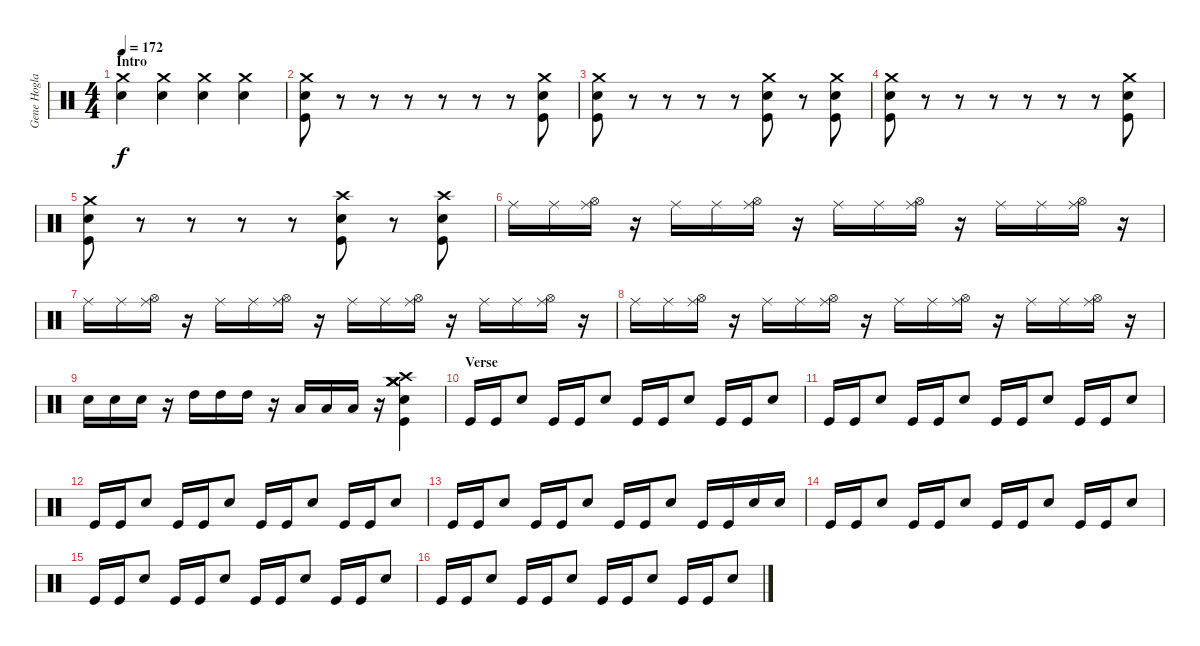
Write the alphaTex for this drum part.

\track ("Gene Hoglan" "Gene Hogla") {instrument percussion}
\staff {score}
\articulation defaults
\ts (4 4)
\section ("" "Intro")
\tempo 172
\clef neutral
\ks c
("Crash medium (hit)" "Snare (hit) 2").4{dy f} ("Crash medium (hit)" "Snare (hit) 2").4 ("Crash medium (hit)" "Snare (hit) 2").4 ("Crash medium (hit)" "Snare (hit) 2").4 |
("Crash medium (hit)" "Snare (hit) 2" "Kick (hit)").8 r.8 r.8 r.8 r.8 r.8 r.8 ("Crash medium (hit)" "Snare (hit) 2" "Kick (hit)").8 |
("Crash medium (hit)" "Snare (hit) 2" "Kick (hit)").8 r.8 r.8 r.8 r.8 ("Crash medium (hit)" "Snare (hit) 2" "Kick (hit)").8 r.8 ("Crash medium (hit)" "Snare (hit) 2" "Kick (hit)").8 |
("Crash medium (hit)" "Snare (hit) 2" "Kick (hit)").8 r.8 r.8 r.8 r.8 r.8 r.8 ("Crash medium (hit)" "Snare (hit) 2" "Kick (hit)").8 |
("Crash medium (hit)" "Snare (hit) 2" "Kick (hit)").8 r.8 r.8 r.8 r.8 ("Crash high (hit)" "Snare (hit) 2" "Kick (hit)").8 r.8 ("Crash high (hit)" "Snare (hit) 2" "Kick (hit)").8 |
"Ride (middle)".16 "Ride (middle)".16 ("Ride (middle)" "Hi-Hat (open)").16 r.16 "Ride (middle)".16 "Ride (middle)".16 ("Ride (middle)" "Hi-Hat (open)").16 r.16 "Ride (middle)".16 "Ride (middle)".16 ("Ride (middle)" "Hi-Hat (open)").16 r.16 "Ride (middle)".16 "Ride (middle)".16 ("Ride (middle)" "Hi-Hat (open)").16 r.16 |
"Ride (middle)".16 "Ride (middle)".16 ("Ride (middle)" "Hi-Hat (open)").16 r.16 "Ride (middle)".16 "Ride (middle)".16 ("Ride (middle)" "Hi-Hat (open)").16 r.16 "Ride (middle)".16 "Ride (middle)".16 ("Ride (middle)" "Hi-Hat (open)").16 r.16 "Ride (middle)".16 "Ride (middle)".16 ("Ride (middle)" "Hi-Hat (open)").16 r.16 |
"Ride (middle)".16 "Ride (middle)".16 ("Ride (middle)" "Hi-Hat (open)").16 r.16 "Ride (middle)".16 "Ride (middle)".16 ("Ride (middle)" "Hi-Hat (open)").16 r.16 "Ride (middle)".16 "Ride (middle)".16 ("Ride (middle)" "Hi-Hat (open)").16 r.16 "Ride (middle)".16 "Ride (middle)".16 ("Ride (middle)" "Hi-Hat (open)").16 r.16 |
"Snare (hit) 2".16 "Snare (hit) 2".16 "Snare (hit) 2".16 r.16 "High Tom (hit)".16 "High Tom (hit)".16 "High Tom (hit)".16 r.16 "Low Floor Tom (hit)".16 "Low Floor Tom (hit)".16 "Low Floor Tom (hit)".16 r.16 ("Crash high (hit)" "Crash medium (hit)" "Crash medium (hit)" "Crash medium (hit)" "Snare (hit) 2" "Kick (hit)").4 |
\section ("" "Verse")
"Kick (hit)".16 "Kick (hit)".16 "Snare (hit) 2".8 "Kick (hit)".16 "Kick (hit)".16 "Snare (hit) 2".8 "Kick (hit)".16 "Kick (hit)".16 "Snare (hit) 2".8 "Kick (hit)".16 "Kick (hit)".16 "Snare (hit) 2".8 |
"Kick (hit)".16 "Kick (hit)".16 "Snare (hit) 2".8 "Kick (hit)".16 "Kick (hit)".16 "Snare (hit) 2".8 "Kick (hit)".16 "Kick (hit)".16 "Snare (hit) 2".8 "Kick (hit)".16 "Kick (hit)".16 "Snare (hit) 2".8 |
"Kick (hit)".16 "Kick (hit)".16 "Snare (hit) 2".8 "Kick (hit)".16 "Kick (hit)".16 "Snare (hit) 2".8 "Kick (hit)".16 "Kick (hit)".16 "Snare (hit) 2".8 "Kick (hit)".16 "Kick (hit)".16 "Snare (hit) 2".8 |
"Kick (hit)".16 "Kick (hit)".16 "Snare (hit) 2".8 "Kick (hit)".16 "Kick (hit)".16 "Snare (hit) 2".8 "Kick (hit)".16 "Kick (hit)".16 "Snare (hit) 2".8 "Kick (hit)".16 "Kick (hit)".16 "Snare (hit) 2".16 "Snare (hit) 2".16 |
"Kick (hit)".16 "Kick (hit)".16 "Snare (hit) 2".8 "Kick (hit)".16 "Kick (hit)".16 "Snare (hit) 2".8 "Kick (hit)".16 "Kick (hit)".16 "Snare (hit) 2".8 "Kick (hit)".16 "Kick (hit)".16 "Snare (hit) 2".8 |
"Kick (hit)".16 "Kick (hit)".16 "Snare (hit) 2".8 "Kick (hit)".16 "Kick (hit)".16 "Snare (hit) 2".8 "Kick (hit)".16 "Kick (hit)".16 "Snare (hit) 2".8 "Kick (hit)".16 "Kick (hit)".16 "Snare (hit) 2".8 |
"Kick (hit)".16 "Kick (hit)".16 "Snare (hit) 2".8 "Kick (hit)".16 "Kick (hit)".16 "Snare (hit) 2".8 "Kick (hit)".16 "Kick (hit)".16 "Snare (hit) 2".8 "Kick (hit)".16 "Kick (hit)".16 "Snare (hit) 2".8
